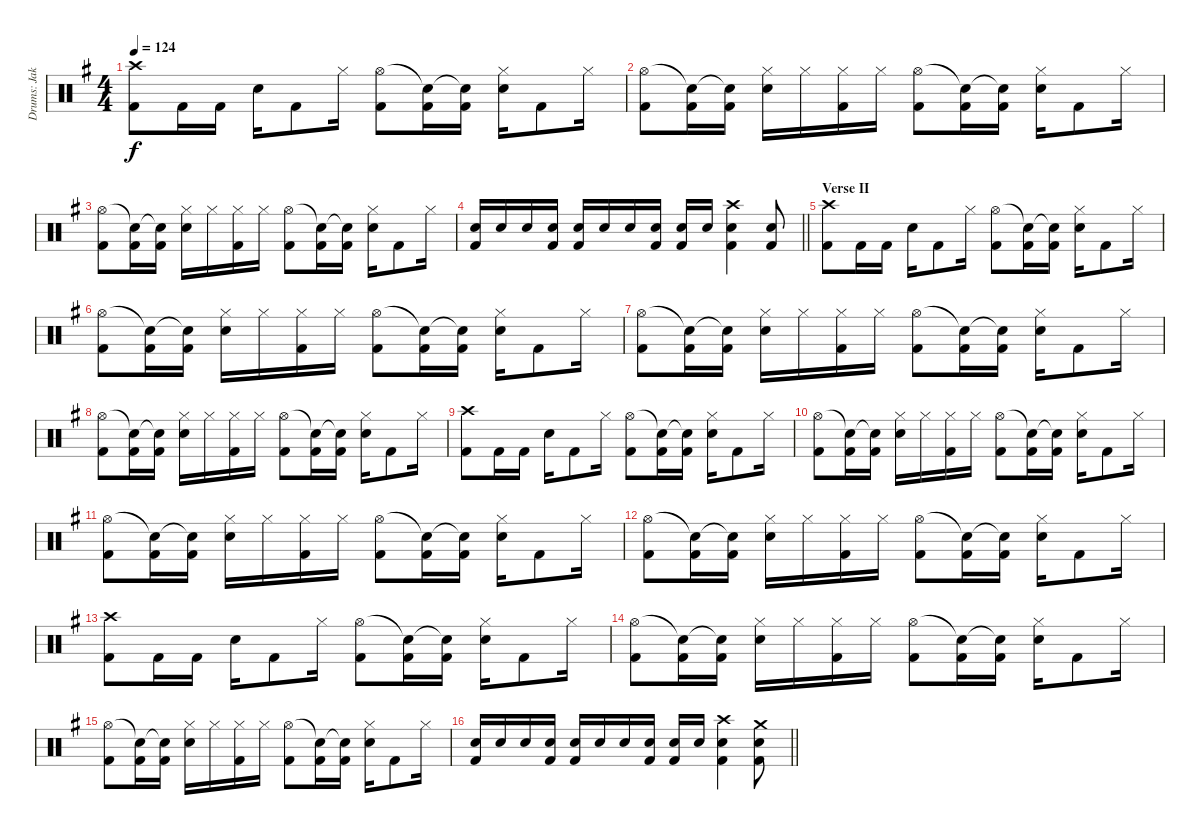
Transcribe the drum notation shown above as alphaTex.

\track ("Drums: Jakson" "Drums: Jak") {instrument percussion}
\staff {score}
\articulation defaults
\ts (4 4)
\tempo 124
\clef neutral
\ks g
("Crash high (hit)" "Kick (hit) 2").8{dy f} "Kick (hit) 2".16 "Kick (hit) 2".16 "Electric Snare (hit)".16 "Kick (hit) 2".8 "Hi-Hat (closed)".16 ("Hi-Hat (open)" "Kick (hit) 2").8 ("Snare (hit)"{t} "Kick (hit) 2").16 ("Snare (hit)"{t} "Kick (hit) 2").16 ("Hi-Hat (closed)" "Electric Snare (hit)").16 "Kick (hit) 2".8 "Hi-Hat (closed)".16 |
("Hi-Hat (open)" "Kick (hit) 2").8 ("Snare (hit)"{t} "Kick (hit) 2").16 ("Snare (hit)"{t} "Kick (hit) 2").16 ("Hi-Hat (closed)" "Electric Snare (hit)").16 "Hi-Hat (closed)".16 ("Hi-Hat (closed)" "Kick (hit) 2").16 "Hi-Hat (closed)".16 ("Hi-Hat (open)" "Kick (hit) 2").8 ("Snare (hit)"{t} "Kick (hit) 2").16 ("Snare (hit)"{t} "Kick (hit) 2").16 ("Hi-Hat (closed)" "Electric Snare (hit)").16 "Kick (hit) 2".8 "Hi-Hat (closed)".16 |
("Hi-Hat (open)" "Kick (hit) 2").8 ("Snare (hit)"{t} "Kick (hit) 2").16 ("Snare (hit)"{t} "Kick (hit) 2").16 ("Hi-Hat (closed)" "Electric Snare (hit)").16 "Hi-Hat (closed)".16 ("Hi-Hat (closed)" "Kick (hit) 2").16 "Hi-Hat (closed)".16 ("Hi-Hat (open)" "Kick (hit) 2").8 ("Snare (hit)"{t} "Kick (hit) 2").16 ("Snare (hit)"{t} "Kick (hit) 2").16 ("Hi-Hat (closed)" "Electric Snare (hit)").16 "Kick (hit) 2".8 "Hi-Hat (closed)".16 |
\barLineRight lightlight
("Snare (hit) 2" "Kick (hit) 2").16 "Electric Snare (hit)".16 "Electric Snare (hit)".16 ("Snare (hit) 2" "Kick (hit) 2").16 ("Snare (hit) 2" "Kick (hit) 2").16 "Electric Snare (hit)".16 "Electric Snare (hit)".16 ("Snare (hit) 2" "Kick (hit) 2").16 ("Snare (hit) 2" "Kick (hit) 2").16 "Electric Snare (hit)".16 ("Crash high (hit)" "Snare (hit) 2" "Kick (hit) 2").4 ("Snare (hit) 2" "Kick (hit) 2").8 |
\section ("" "Verse II")
("Crash high (hit)" "Kick (hit) 2").8 "Kick (hit) 2".16 "Kick (hit) 2".16 "Electric Snare (hit)".16 "Kick (hit) 2".8 "Hi-Hat (closed)".16 ("Hi-Hat (open)" "Kick (hit) 2").8 ("Snare (hit)"{t} "Kick (hit) 2").16 ("Snare (hit)"{t} "Kick (hit) 2").16 ("Hi-Hat (closed)" "Electric Snare (hit)").16 "Kick (hit) 2".8 "Hi-Hat (closed)".16 |
("Hi-Hat (open)" "Kick (hit) 2").8 ("Snare (hit)"{t} "Kick (hit) 2").16 ("Snare (hit)"{t} "Kick (hit) 2").16 ("Hi-Hat (closed)" "Electric Snare (hit)").16 "Hi-Hat (closed)".16 ("Hi-Hat (closed)" "Kick (hit) 2").16 "Hi-Hat (closed)".16 ("Hi-Hat (open)" "Kick (hit) 2").8 ("Snare (hit)"{t} "Kick (hit) 2").16 ("Snare (hit)"{t} "Kick (hit) 2").16 ("Hi-Hat (closed)" "Electric Snare (hit)").16 "Kick (hit) 2".8 "Hi-Hat (closed)".16 |
("Hi-Hat (open)" "Kick (hit) 2").8 ("Snare (hit)"{t} "Kick (hit) 2").16 ("Snare (hit)"{t} "Kick (hit) 2").16 ("Hi-Hat (closed)" "Electric Snare (hit)").16 "Hi-Hat (closed)".16 ("Hi-Hat (closed)" "Kick (hit) 2").16 "Hi-Hat (closed)".16 ("Hi-Hat (open)" "Kick (hit) 2").8 ("Snare (hit)"{t} "Kick (hit) 2").16 ("Snare (hit)"{t} "Kick (hit) 2").16 ("Hi-Hat (closed)" "Electric Snare (hit)").16 "Kick (hit) 2".8 "Hi-Hat (closed)".16 |
("Hi-Hat (open)" "Kick (hit) 2").8 ("Snare (hit)"{t} "Kick (hit) 2").16 ("Snare (hit)"{t} "Kick (hit) 2").16 ("Hi-Hat (closed)" "Electric Snare (hit)").16 "Hi-Hat (closed)".16 ("Hi-Hat (closed)" "Kick (hit) 2").16 "Hi-Hat (closed)".16 ("Hi-Hat (open)" "Kick (hit) 2").8 ("Snare (hit)"{t} "Kick (hit) 2").16 ("Snare (hit)"{t} "Kick (hit) 2").16 ("Hi-Hat (closed)" "Electric Snare (hit)").16 "Kick (hit) 2".8 "Hi-Hat (closed)".16 |
("Crash high (hit)" "Kick (hit) 2").8 "Kick (hit) 2".16 "Kick (hit) 2".16 "Electric Snare (hit)".16 "Kick (hit) 2".8 "Hi-Hat (closed)".16 ("Hi-Hat (open)" "Kick (hit) 2").8 ("Snare (hit)"{t} "Kick (hit) 2").16 ("Snare (hit)"{t} "Kick (hit) 2").16 ("Hi-Hat (closed)" "Electric Snare (hit)").16 "Kick (hit) 2".8 "Hi-Hat (closed)".16 |
("Hi-Hat (open)" "Kick (hit) 2").8 ("Snare (hit)"{t} "Kick (hit) 2").16 ("Snare (hit)"{t} "Kick (hit) 2").16 ("Hi-Hat (closed)" "Electric Snare (hit)").16 "Hi-Hat (closed)".16 ("Hi-Hat (closed)" "Kick (hit) 2").16 "Hi-Hat (closed)".16 ("Hi-Hat (open)" "Kick (hit) 2").8 ("Snare (hit)"{t} "Kick (hit) 2").16 ("Snare (hit)"{t} "Kick (hit) 2").16 ("Hi-Hat (closed)" "Electric Snare (hit)").16 "Kick (hit) 2".8 "Hi-Hat (closed)".16 |
("Hi-Hat (open)" "Kick (hit) 2").8 ("Snare (hit)"{t} "Kick (hit) 2").16 ("Snare (hit)"{t} "Kick (hit) 2").16 ("Hi-Hat (closed)" "Electric Snare (hit)").16 "Hi-Hat (closed)".16 ("Hi-Hat (closed)" "Kick (hit) 2").16 "Hi-Hat (closed)".16 ("Hi-Hat (open)" "Kick (hit) 2").8 ("Snare (hit)"{t} "Kick (hit) 2").16 ("Snare (hit)"{t} "Kick (hit) 2").16 ("Hi-Hat (closed)" "Electric Snare (hit)").16 "Kick (hit) 2".8 "Hi-Hat (closed)".16 |
("Hi-Hat (open)" "Kick (hit) 2").8 ("Snare (hit)"{t} "Kick (hit) 2").16 ("Snare (hit)"{t} "Kick (hit) 2").16 ("Hi-Hat (closed)" "Electric Snare (hit)").16 "Hi-Hat (closed)".16 ("Hi-Hat (closed)" "Kick (hit) 2").16 "Hi-Hat (closed)".16 ("Hi-Hat (open)" "Kick (hit) 2").8 ("Snare (hit)"{t} "Kick (hit) 2").16 ("Snare (hit)"{t} "Kick (hit) 2").16 ("Hi-Hat (closed)" "Electric Snare (hit)").16 "Kick (hit) 2".8 "Hi-Hat (closed)".16 |
("Crash high (hit)" "Kick (hit) 2").8 "Kick (hit) 2".16 "Kick (hit) 2".16 "Electric Snare (hit)".16 "Kick (hit) 2".8 "Hi-Hat (closed)".16 ("Hi-Hat (open)" "Kick (hit) 2").8 ("Snare (hit)"{t} "Kick (hit) 2").16 ("Snare (hit)"{t} "Kick (hit) 2").16 ("Hi-Hat (closed)" "Electric Snare (hit)").16 "Kick (hit) 2".8 "Hi-Hat (closed)".16 |
("Hi-Hat (open)" "Kick (hit) 2").8 ("Snare (hit)"{t} "Kick (hit) 2").16 ("Snare (hit)"{t} "Kick (hit) 2").16 ("Hi-Hat (closed)" "Electric Snare (hit)").16 "Hi-Hat (closed)".16 ("Hi-Hat (closed)" "Kick (hit) 2").16 "Hi-Hat (closed)".16 ("Hi-Hat (open)" "Kick (hit) 2").8 ("Snare (hit)"{t} "Kick (hit) 2").16 ("Snare (hit)"{t} "Kick (hit) 2").16 ("Hi-Hat (closed)" "Electric Snare (hit)").16 "Kick (hit) 2".8 "Hi-Hat (closed)".16 |
("Hi-Hat (open)" "Kick (hit) 2").8 ("Snare (hit)"{t} "Kick (hit) 2").16 ("Snare (hit)"{t} "Kick (hit) 2").16 ("Hi-Hat (closed)" "Electric Snare (hit)").16 "Hi-Hat (closed)".16 ("Hi-Hat (closed)" "Kick (hit) 2").16 "Hi-Hat (closed)".16 ("Hi-Hat (open)" "Kick (hit) 2").8 ("Snare (hit)"{t} "Kick (hit) 2").16 ("Snare (hit)"{t} "Kick (hit) 2").16 ("Hi-Hat (closed)" "Electric Snare (hit)").16 "Kick (hit) 2".8 "Hi-Hat (closed)".16 |
\barLineRight lightlight
("Electric Snare (hit)" "Kick (hit) 2").16 "Electric Snare (hit)".16 "Electric Snare (hit)".16 ("Snare (hit) 2" "Kick (hit) 2").16 ("Snare (hit) 2" "Kick (hit) 2").16 "Electric Snare (hit)".16 "Electric Snare (hit)".16 ("Electric Snare (hit)" "Kick (hit) 2").16 ("Electric Snare (hit)" "Kick (hit) 2").16 "Electric Snare (hit)".16 ("Crash high (hit)" "Snare (hit) 2" "Kick (hit) 2").4 ("Crash medium (hit)" "Electric Snare (hit)" "Kick (hit) 2").8
